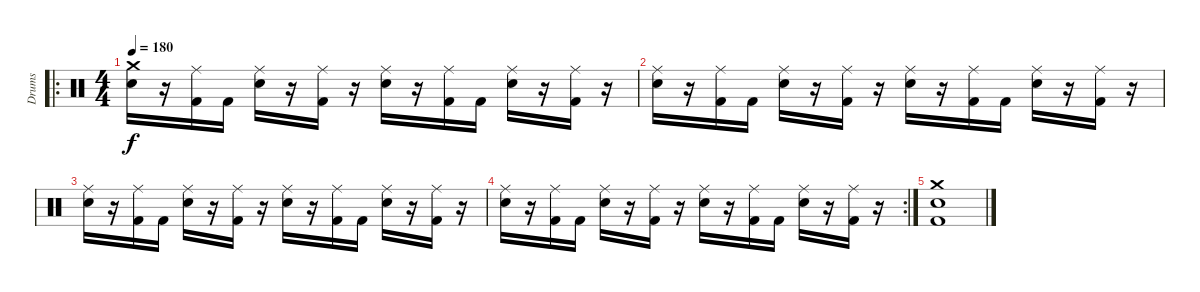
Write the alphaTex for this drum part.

\track ("Drums" "Drums") {instrument percussion}
\staff {score}
\articulation defaults
\ro
\ts (4 4)
\tempo 180
\clef neutral
\ks c
("Crash medium (hit)" "Electric Snare (hit)").16{dy f} r.16 ("Ride (middle)" "Kick (hit) 2").16 "Kick (hit) 2".16 ("Ride (middle)" "Electric Snare (hit)").16 r.16 ("Ride (middle)" "Kick (hit) 2").16 r.16 ("Ride (middle)" "Electric Snare (hit)").16 r.16 ("Ride (middle)" "Kick (hit) 2").16 "Kick (hit) 2".16 ("Ride (middle)" "Electric Snare (hit)").16 r.16 ("Ride (middle)" "Kick (hit) 2").16 r.16 |
("Ride (middle)" "Electric Snare (hit)").16 r.16 ("Ride (middle)" "Kick (hit) 2").16 "Kick (hit) 2".16 ("Ride (middle)" "Electric Snare (hit)").16 r.16 ("Ride (middle)" "Kick (hit) 2").16 r.16 ("Ride (middle)" "Electric Snare (hit)").16 r.16 ("Ride (middle)" "Kick (hit) 2").16 "Kick (hit) 2".16 ("Ride (middle)" "Electric Snare (hit)").16 r.16 ("Ride (middle)" "Kick (hit) 2").16 r.16 |
("Ride (middle)" "Electric Snare (hit)").16 r.16 ("Ride (middle)" "Kick (hit) 2").16 "Kick (hit) 2".16 ("Ride (middle)" "Electric Snare (hit)").16 r.16 ("Ride (middle)" "Kick (hit) 2").16 r.16 ("Ride (middle)" "Electric Snare (hit)").16 r.16 ("Ride (middle)" "Kick (hit) 2").16 "Kick (hit) 2".16 ("Ride (middle)" "Electric Snare (hit)").16 r.16 ("Ride (middle)" "Kick (hit) 2").16 r.16 |
\rc 2
("Ride (middle)" "Electric Snare (hit)").16 r.16 ("Ride (middle)" "Kick (hit) 2").16 "Kick (hit) 2".16 ("Ride (middle)" "Electric Snare (hit)").16 r.16 ("Ride (middle)" "Kick (hit) 2").16 r.16 ("Ride (middle)" "Electric Snare (hit)").16 r.16 ("Ride (middle)" "Kick (hit) 2").16 "Kick (hit) 2".16 ("Ride (middle)" "Electric Snare (hit)").16 r.16 ("Ride (middle)" "Kick (hit) 2").16 r.16 |
("Crash medium (hit)" "Electric Snare (hit)" "Kick (hit) 2").1
